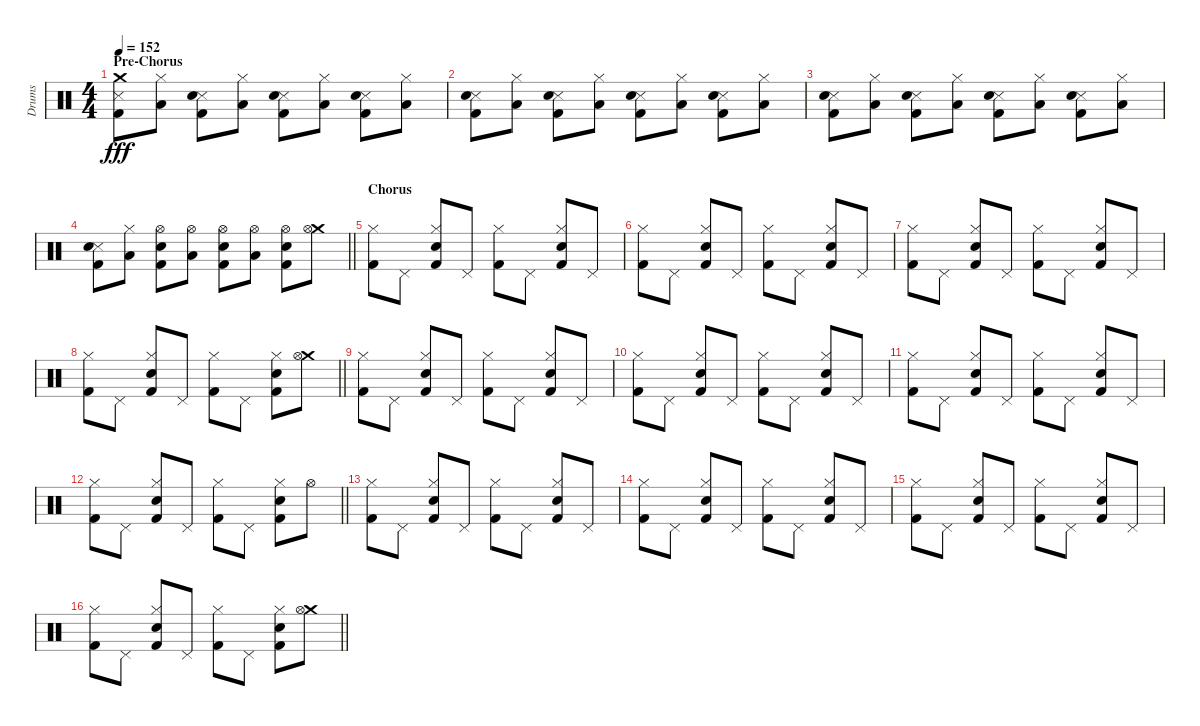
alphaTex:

\track ("Drums" "Drums") {instrument percussion}
\staff {score}
\articulation defaults
\ts (4 4)
\section ("" "Pre-Chorus")
\tempo 152
\clef neutral
\ks c
("Crash medium (hit)" "Snare (side stick) 3" "Kick (hit) 2").8{dy fff} ("Hi-Hat (closed)" "Low Floor Tom (hit)").8 ("Snare (side stick) 3" "Electric Snare (hit)" "Kick (hit) 2").8 ("Hi-Hat (closed)" "Low Floor Tom (hit)").8 ("Snare (side stick) 3" "Electric Snare (hit)" "Kick (hit) 2").8 ("Hi-Hat (closed)" "Low Floor Tom (hit)").8 ("Snare (side stick) 3" "Electric Snare (hit)" "Kick (hit) 2").8 ("Hi-Hat (closed)" "Low Floor Tom (hit)").8 |
("Snare (side stick) 3" "Electric Snare (hit)" "Kick (hit) 2").8 ("Hi-Hat (closed)" "Low Floor Tom (hit)").8 ("Snare (side stick) 3" "Electric Snare (hit)" "Kick (hit) 2").8 ("Hi-Hat (closed)" "Low Floor Tom (hit)").8 ("Snare (side stick) 3" "Electric Snare (hit)" "Kick (hit) 2").8 ("Hi-Hat (closed)" "Low Floor Tom (hit)").8 ("Snare (side stick) 3" "Electric Snare (hit)" "Kick (hit) 2").8 ("Hi-Hat (closed)" "Low Floor Tom (hit)").8 |
("Snare (side stick) 3" "Electric Snare (hit)" "Kick (hit) 2").8 ("Hi-Hat (closed)" "Low Floor Tom (hit)").8 ("Snare (side stick) 3" "Electric Snare (hit)" "Kick (hit) 2").8 ("Hi-Hat (closed)" "Low Floor Tom (hit)").8 ("Snare (side stick) 3" "Electric Snare (hit)" "Kick (hit) 2").8 ("Hi-Hat (closed)" "Low Floor Tom (hit)").8 ("Snare (side stick) 3" "Electric Snare (hit)" "Kick (hit) 2").8 ("Hi-Hat (closed)" "Low Floor Tom (hit)").8 |
\barLineRight lightlight
("Snare (side stick) 3" "Electric Snare (hit)" "Kick (hit) 2").8 ("Hi-Hat (closed)" "Low Floor Tom (hit)").8 ("Hi-Hat (open)" "Electric Snare (hit)" "Kick (hit) 2").8 ("Hi-Hat (open)" "Low Floor Tom (hit)").8 ("Hi-Hat (open)" "Electric Snare (hit)" "Kick (hit) 2").8 ("Hi-Hat (open)" "Low Floor Tom (hit)").8 ("Hi-Hat (open)" "Electric Snare (hit)" "Kick (hit) 2").8 ("Crash medium (hit)" "Hi-Hat (open)").8 |
\section ("" "Chorus")
("Hi-Hat (closed)" "Kick (hit) 2").8 "Pedal Hi-Hat (hit)".8 ("Hi-Hat (closed)" "Electric Snare (hit)" "Kick (hit) 2").8 "Pedal Hi-Hat (hit)".8 ("Hi-Hat (closed)" "Kick (hit) 2").8 "Pedal Hi-Hat (hit)".8 ("Hi-Hat (closed)" "Electric Snare (hit)" "Kick (hit) 2").8 "Pedal Hi-Hat (hit)".8 |
("Hi-Hat (closed)" "Kick (hit) 2").8 "Pedal Hi-Hat (hit)".8 ("Hi-Hat (closed)" "Electric Snare (hit)" "Kick (hit) 2").8 "Pedal Hi-Hat (hit)".8 ("Hi-Hat (closed)" "Kick (hit) 2").8 "Pedal Hi-Hat (hit)".8 ("Hi-Hat (closed)" "Electric Snare (hit)" "Kick (hit) 2").8 "Pedal Hi-Hat (hit)".8 |
("Hi-Hat (closed)" "Kick (hit) 2").8 "Pedal Hi-Hat (hit)".8 ("Hi-Hat (closed)" "Electric Snare (hit)" "Kick (hit) 2").8 "Pedal Hi-Hat (hit)".8 ("Hi-Hat (closed)" "Kick (hit) 2").8 "Pedal Hi-Hat (hit)".8 ("Hi-Hat (closed)" "Electric Snare (hit)" "Kick (hit) 2").8 "Pedal Hi-Hat (hit)".8 |
\barLineRight lightlight
("Hi-Hat (closed)" "Kick (hit) 2").8 "Pedal Hi-Hat (hit)".8 ("Hi-Hat (closed)" "Electric Snare (hit)" "Kick (hit) 2").8 "Pedal Hi-Hat (hit)".8 ("Hi-Hat (closed)" "Kick (hit) 2").8 "Pedal Hi-Hat (hit)".8 ("Hi-Hat (closed)" "Electric Snare (hit)" "Kick (hit) 2").8 ("Crash medium (hit)" "Hi-Hat (open)").8 |
("Hi-Hat (closed)" "Kick (hit) 2").8 "Pedal Hi-Hat (hit)".8 ("Hi-Hat (closed)" "Electric Snare (hit)" "Kick (hit) 2").8 "Pedal Hi-Hat (hit)".8 ("Hi-Hat (closed)" "Kick (hit) 2").8 "Pedal Hi-Hat (hit)".8 ("Hi-Hat (closed)" "Electric Snare (hit)" "Kick (hit) 2").8 "Pedal Hi-Hat (hit)".8 |
("Hi-Hat (closed)" "Kick (hit) 2").8 "Pedal Hi-Hat (hit)".8 ("Hi-Hat (closed)" "Electric Snare (hit)" "Kick (hit) 2").8 "Pedal Hi-Hat (hit)".8 ("Hi-Hat (closed)" "Kick (hit) 2").8 "Pedal Hi-Hat (hit)".8 ("Hi-Hat (closed)" "Electric Snare (hit)" "Kick (hit) 2").8 "Pedal Hi-Hat (hit)".8 |
("Hi-Hat (closed)" "Kick (hit) 2").8 "Pedal Hi-Hat (hit)".8 ("Hi-Hat (closed)" "Electric Snare (hit)" "Kick (hit) 2").8 "Pedal Hi-Hat (hit)".8 ("Hi-Hat (closed)" "Kick (hit) 2").8 "Pedal Hi-Hat (hit)".8 ("Hi-Hat (closed)" "Electric Snare (hit)" "Kick (hit) 2").8 "Pedal Hi-Hat (hit)".8 |
\barLineRight lightlight
("Hi-Hat (closed)" "Kick (hit) 2").8 "Pedal Hi-Hat (hit)".8 ("Hi-Hat (closed)" "Electric Snare (hit)" "Kick (hit) 2").8 "Pedal Hi-Hat (hit)".8 ("Hi-Hat (closed)" "Kick (hit) 2").8 "Pedal Hi-Hat (hit)".8 ("Hi-Hat (closed)" "Electric Snare (hit)" "Kick (hit) 2").8 "Hi-Hat (open)".8 |
("Hi-Hat (closed)" "Kick (hit) 2").8 "Pedal Hi-Hat (hit)".8 ("Hi-Hat (closed)" "Electric Snare (hit)" "Kick (hit) 2").8 "Pedal Hi-Hat (hit)".8 ("Hi-Hat (closed)" "Kick (hit) 2").8 "Pedal Hi-Hat (hit)".8 ("Hi-Hat (closed)" "Electric Snare (hit)" "Kick (hit) 2").8 "Pedal Hi-Hat (hit)".8 |
("Hi-Hat (closed)" "Kick (hit) 2").8 "Pedal Hi-Hat (hit)".8 ("Hi-Hat (closed)" "Electric Snare (hit)" "Kick (hit) 2").8 "Pedal Hi-Hat (hit)".8 ("Hi-Hat (closed)" "Kick (hit) 2").8 "Pedal Hi-Hat (hit)".8 ("Hi-Hat (closed)" "Electric Snare (hit)" "Kick (hit) 2").8 "Pedal Hi-Hat (hit)".8 |
("Hi-Hat (closed)" "Kick (hit) 2").8 "Pedal Hi-Hat (hit)".8 ("Hi-Hat (closed)" "Electric Snare (hit)" "Kick (hit) 2").8 "Pedal Hi-Hat (hit)".8 ("Hi-Hat (closed)" "Kick (hit) 2").8 "Pedal Hi-Hat (hit)".8 ("Hi-Hat (closed)" "Electric Snare (hit)" "Kick (hit) 2").8 "Pedal Hi-Hat (hit)".8 |
\barLineRight lightlight
("Hi-Hat (closed)" "Kick (hit) 2").8 "Pedal Hi-Hat (hit)".8 ("Hi-Hat (closed)" "Electric Snare (hit)" "Kick (hit) 2").8 "Pedal Hi-Hat (hit)".8 ("Hi-Hat (closed)" "Kick (hit) 2").8 "Pedal Hi-Hat (hit)".8 ("Hi-Hat (closed)" "Electric Snare (hit)" "Kick (hit) 2").8 ("Crash medium (hit)" "Hi-Hat (open)").8
